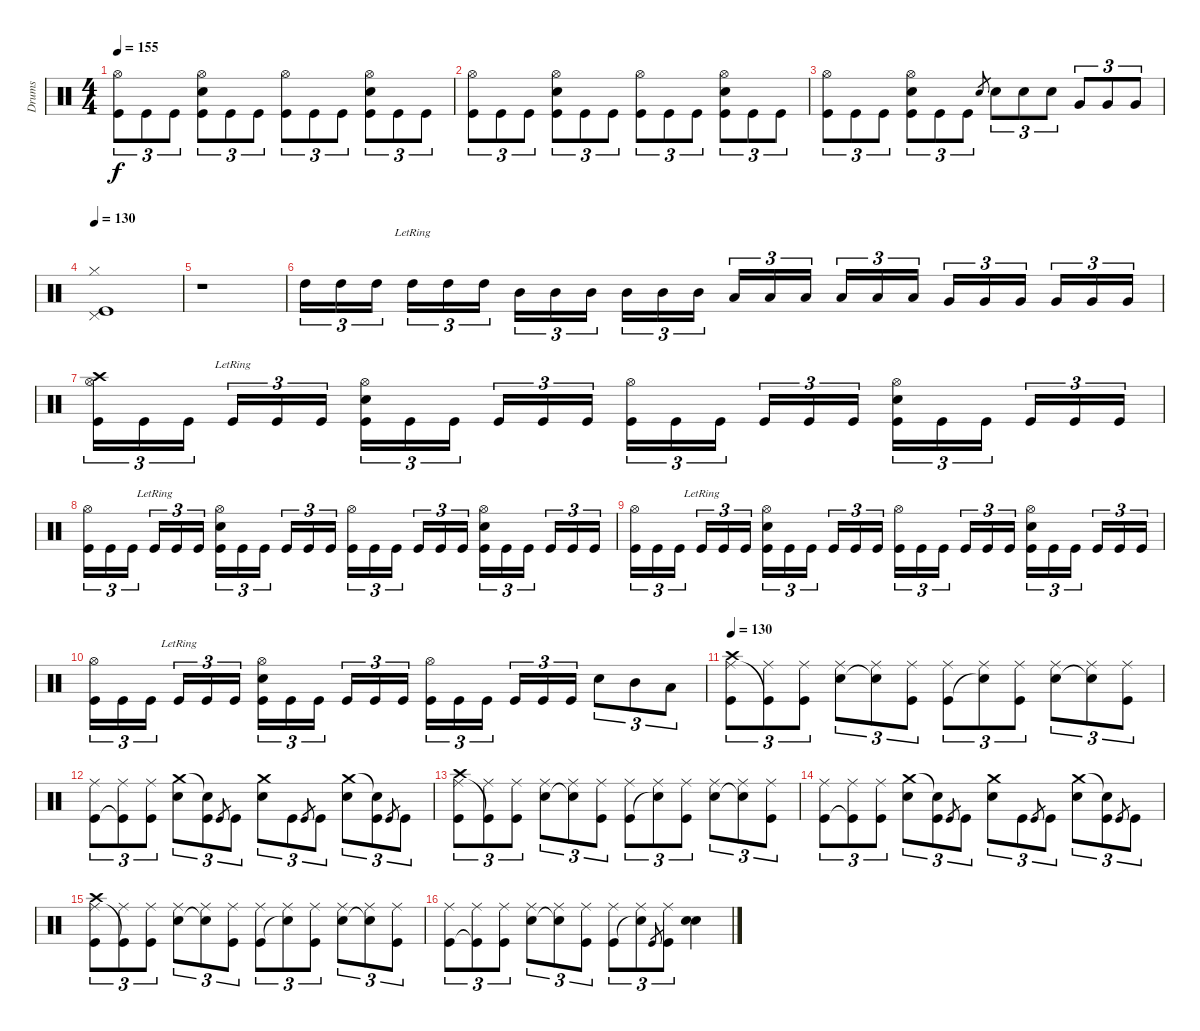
\track ("Drums" "Drums") {instrument percussion}
\staff {score}
\articulation defaults
\ts (4 4)
\tempo 155
\clef neutral
\ks c
("Hi-Hat (open)" "Kick (hit)").8{tu (3 2) dy f} "Kick (hit)".8{tu (3 2)} "Kick (hit)".8{tu (3 2)} ("Hi-Hat (open)" "Electric Snare (hit)" "Kick (hit)").8{tu (3 2)} "Kick (hit)".8{tu (3 2)} "Kick (hit)".8{tu (3 2)} ("Hi-Hat (open)" "Kick (hit)").8{tu (3 2)} "Kick (hit)".8{tu (3 2)} "Kick (hit)".8{tu (3 2)} ("Hi-Hat (open)" "Electric Snare (hit)" "Kick (hit)").8{tu (3 2)} "Kick (hit)".8{tu (3 2)} "Kick (hit)".8{tu (3 2)} |
("Hi-Hat (open)" "Kick (hit)").8{tu (3 2)} "Kick (hit)".8{tu (3 2)} "Kick (hit)".8{tu (3 2)} ("Hi-Hat (open)" "Electric Snare (hit)" "Kick (hit)").8{tu (3 2)} "Kick (hit)".8{tu (3 2)} "Kick (hit)".8{tu (3 2)} ("Hi-Hat (open)" "Kick (hit)").8{tu (3 2)} "Kick (hit)".8{tu (3 2)} "Kick (hit)".8{tu (3 2)} ("Hi-Hat (open)" "Electric Snare (hit)" "Kick (hit)").8{tu (3 2)} "Kick (hit)".8{tu (3 2)} "Kick (hit)".8{tu (3 2)} |
("Hi-Hat (open)" "Kick (hit)").8{tu (3 2)} "Kick (hit)".8{tu (3 2)} "Kick (hit)".8{tu (3 2)} ("Hi-Hat (open)" "Electric Snare (hit)" "Kick (hit)").8{tu (3 2)} "Kick (hit)".8{tu (3 2)} "Kick (hit)".8{tu (3 2)} "Electric Snare (hit)".8{gr} "Electric Snare (hit)".8{tu (3 2)} "Electric Snare (hit)".8{tu (3 2)} "Electric Snare (hit)".8{tu (3 2)} "Very Low Tom (hit)".8{tu (3 2)} "Very Low Tom (hit)".8{tu (3 2)} "Very Low Tom (hit)".8{tu (3 2)} |
\tempo 130
("Hi-Hat (closed)" "Pedal Hi-Hat (hit)" "Kick (hit)").1 |
r.1 |
"High Tom (hit)".16{tu (3 2)} "High Tom (hit)".16{tu (3 2)} "High Tom (hit)".16{tu (3 2)} "High Tom (hit)"{lr}.16{tu (3 2)} "High Tom (hit)".16{tu (3 2)} "High Tom (hit)".16{tu (3 2)} "Mid Tom (hit)".16{tu (3 2)} "Mid Tom (hit)".16{tu (3 2)} "Mid Tom (hit)".16{tu (3 2)} "Mid Tom (hit)".16{tu (3 2)} "Mid Tom (hit)".16{tu (3 2)} "Mid Tom (hit)".16{tu (3 2)} "Low Tom (hit)".16{tu (3 2)} "Low Tom (hit)".16{tu (3 2)} "Low Tom (hit)".16{tu (3 2)} "Low Tom (hit)".16{tu (3 2)} "Low Tom (hit)".16{tu (3 2)} "Low Tom (hit)".16{tu (3 2)} "Very Low Tom (hit)".16{tu (3 2)} "Very Low Tom (hit)".16{tu (3 2)} "Very Low Tom (hit)".16{tu (3 2)} "Very Low Tom (hit)".16{tu (3 2)} "Very Low Tom (hit)".16{tu (3 2)} "Very Low Tom (hit)".16{tu (3 2)} |
("Crash high (hit)" "Hi-Hat (open)" "Kick (hit)").16{tu (3 2)} "Kick (hit)".16{tu (3 2)} "Kick (hit)".16{tu (3 2)} "Kick (hit)"{lr}.16{tu (3 2)} "Kick (hit)".16{tu (3 2)} "Kick (hit)".16{tu (3 2)} ("Hi-Hat (open)" "Electric Snare (hit)" "Kick (hit)").16{tu (3 2)} "Kick (hit)".16{tu (3 2)} "Kick (hit)".16{tu (3 2)} "Kick (hit)".16{tu (3 2)} "Kick (hit)".16{tu (3 2)} "Kick (hit)".16{tu (3 2)} ("Hi-Hat (open)" "Kick (hit)").16{tu (3 2)} "Kick (hit)".16{tu (3 2)} "Kick (hit)".16{tu (3 2)} "Kick (hit)".16{tu (3 2)} "Kick (hit)".16{tu (3 2)} "Kick (hit)".16{tu (3 2)} ("Hi-Hat (open)" "Electric Snare (hit)" "Kick (hit)").16{tu (3 2)} "Kick (hit)".16{tu (3 2)} "Kick (hit)".16{tu (3 2)} "Kick (hit)".16{tu (3 2)} "Kick (hit)".16{tu (3 2)} "Kick (hit)".16{tu (3 2)} |
("Hi-Hat (open)" "Kick (hit)").16{tu (3 2)} "Kick (hit)".16{tu (3 2)} "Kick (hit)".16{tu (3 2)} "Kick (hit)"{lr}.16{tu (3 2)} "Kick (hit)".16{tu (3 2)} "Kick (hit)".16{tu (3 2)} ("Hi-Hat (open)" "Electric Snare (hit)" "Kick (hit)").16{tu (3 2)} "Kick (hit)".16{tu (3 2)} "Kick (hit)".16{tu (3 2)} "Kick (hit)".16{tu (3 2)} "Kick (hit)".16{tu (3 2)} "Kick (hit)".16{tu (3 2)} ("Hi-Hat (open)" "Kick (hit)").16{tu (3 2)} "Kick (hit)".16{tu (3 2)} "Kick (hit)".16{tu (3 2)} "Kick (hit)".16{tu (3 2)} "Kick (hit)".16{tu (3 2)} "Kick (hit)".16{tu (3 2)} ("Hi-Hat (open)" "Electric Snare (hit)" "Kick (hit)").16{tu (3 2)} "Kick (hit)".16{tu (3 2)} "Kick (hit)".16{tu (3 2)} "Kick (hit)".16{tu (3 2)} "Kick (hit)".16{tu (3 2)} "Kick (hit)".16{tu (3 2)} |
("Hi-Hat (open)" "Kick (hit)").16{tu (3 2)} "Kick (hit)".16{tu (3 2)} "Kick (hit)".16{tu (3 2)} "Kick (hit)"{lr}.16{tu (3 2)} "Kick (hit)".16{tu (3 2)} "Kick (hit)".16{tu (3 2)} ("Hi-Hat (open)" "Electric Snare (hit)" "Kick (hit)").16{tu (3 2)} "Kick (hit)".16{tu (3 2)} "Kick (hit)".16{tu (3 2)} "Kick (hit)".16{tu (3 2)} "Kick (hit)".16{tu (3 2)} "Kick (hit)".16{tu (3 2)} ("Hi-Hat (open)" "Kick (hit)").16{tu (3 2)} "Kick (hit)".16{tu (3 2)} "Kick (hit)".16{tu (3 2)} "Kick (hit)".16{tu (3 2)} "Kick (hit)".16{tu (3 2)} "Kick (hit)".16{tu (3 2)} ("Hi-Hat (open)" "Electric Snare (hit)" "Kick (hit)").16{tu (3 2)} "Kick (hit)".16{tu (3 2)} "Kick (hit)".16{tu (3 2)} "Kick (hit)".16{tu (3 2)} "Kick (hit)".16{tu (3 2)} "Kick (hit)".16{tu (3 2)} |
("Hi-Hat (open)" "Kick (hit)").16{tu (3 2)} "Kick (hit)".16{tu (3 2)} "Kick (hit)".16{tu (3 2)} "Kick (hit)"{lr}.16{tu (3 2)} "Kick (hit)".16{tu (3 2)} "Kick (hit)".16{tu (3 2)} ("Hi-Hat (open)" "Electric Snare (hit)" "Kick (hit)").16{tu (3 2)} "Kick (hit)".16{tu (3 2)} "Kick (hit)".16{tu (3 2)} "Kick (hit)".16{tu (3 2)} "Kick (hit)".16{tu (3 2)} "Kick (hit)".16{tu (3 2)} ("Hi-Hat (open)" "Kick (hit)").16{tu (3 2)} "Kick (hit)".16{tu (3 2)} "Kick (hit)".16{tu (3 2)} "Kick (hit)".16{tu (3 2)} "Kick (hit)".16{tu (3 2)} "Kick (hit)".16{tu (3 2)} "Electric Snare (hit)".8{tu (3 2)} "Mid Tom (hit)".8{tu (3 2)} "Low Tom (hit)".8{tu (3 2)} |
\tempo 130
("Crash high (hit)" "Ride (middle)" "Kick (hit)").8{tu (3 2)} ("Ride (middle)" "Kick (hit)"{t}).8{tu (3 2)} ("Ride (middle)" "Kick (hit)").8{tu (3 2)} ("Ride (middle)" "Electric Snare (hit)").8{tu (3 2)} ("Ride (middle)" "Snare (hit)"{t}).8{tu (3 2)} ("Ride (middle)" "Kick (hit)").8{tu (3 2)} ("Ride (middle)" "Kick (hit)").8{tu (3 2)} ("Ride (middle)" "Snare (hit)"{t}).8{tu (3 2)} ("Ride (middle)" "Kick (hit)").8{tu (3 2)} ("Ride (middle)" "Electric Snare (hit)").8{tu (3 2)} ("Ride (middle)" "Snare (hit)"{t}).8{tu (3 2)} ("Ride (middle)" "Kick (hit)").8{tu (3 2)} |
("Ride (middle)" "Kick (hit)").8{tu (3 2)} ("Ride (middle)" "Kick (hit)"{t}).8{tu (3 2)} ("Ride (middle)" "Kick (hit)").8{tu (3 2)} ("Crash medium (hit)" "Electric Snare (hit)").8{tu (3 2)} ("Snare (hit)"{t} "Kick (hit)").8{tu (3 2)} "Kick (hit)".8{gr} "Kick (hit)".8{tu (3 2)} ("Crash medium (hit)" "Electric Snare (hit)").8{tu (3 2)} "Kick (hit)".8{tu (3 2)} "Kick (hit)".8{gr} "Kick (hit)".8{tu (3 2)} ("Crash medium (hit)" "Electric Snare (hit)").8{tu (3 2)} ("Snare (hit)"{t} "Kick (hit)").8{tu (3 2)} "Kick (hit)".8{gr} "Kick (hit)".8{tu (3 2)} |
("Crash high (hit)" "Ride (middle)" "Kick (hit)").8{tu (3 2)} ("Ride (middle)" "Kick (hit)"{t}).8{tu (3 2)} ("Ride (middle)" "Kick (hit)").8{tu (3 2)} ("Ride (middle)" "Electric Snare (hit)").8{tu (3 2)} ("Ride (middle)" "Snare (hit)"{t}).8{tu (3 2)} ("Ride (middle)" "Kick (hit)").8{tu (3 2)} ("Ride (middle)" "Kick (hit)").8{tu (3 2)} ("Ride (middle)" "Snare (hit)"{t}).8{tu (3 2)} ("Ride (middle)" "Kick (hit)").8{tu (3 2)} ("Ride (middle)" "Electric Snare (hit)").8{tu (3 2)} ("Ride (middle)" "Snare (hit)"{t}).8{tu (3 2)} ("Ride (middle)" "Kick (hit)").8{tu (3 2)} |
("Ride (middle)" "Kick (hit)").8{tu (3 2)} ("Ride (middle)" "Kick (hit)"{t}).8{tu (3 2)} ("Ride (middle)" "Kick (hit)").8{tu (3 2)} ("Crash medium (hit)" "Electric Snare (hit)").8{tu (3 2)} ("Snare (hit)"{t} "Kick (hit)").8{tu (3 2)} "Kick (hit)".8{gr} "Kick (hit)".8{tu (3 2)} ("Crash medium (hit)" "Electric Snare (hit)").8{tu (3 2)} "Kick (hit)".8{tu (3 2)} "Kick (hit)".8{gr} "Kick (hit)".8{tu (3 2)} ("Crash medium (hit)" "Electric Snare (hit)").8{tu (3 2)} ("Snare (hit)"{t} "Kick (hit)").8{tu (3 2)} "Kick (hit)".8{gr} "Kick (hit)".8{tu (3 2)} |
("Crash high (hit)" "Ride (middle)" "Kick (hit)").8{tu (3 2)} ("Ride (middle)" "Kick (hit)"{t}).8{tu (3 2)} ("Ride (middle)" "Kick (hit)").8{tu (3 2)} ("Ride (middle)" "Electric Snare (hit)").8{tu (3 2)} ("Ride (middle)" "Snare (hit)"{t}).8{tu (3 2)} ("Ride (middle)" "Kick (hit)").8{tu (3 2)} ("Ride (middle)" "Kick (hit)").8{tu (3 2)} ("Ride (middle)" "Snare (hit)"{t}).8{tu (3 2)} ("Ride (middle)" "Kick (hit)").8{tu (3 2)} ("Ride (middle)" "Electric Snare (hit)").8{tu (3 2)} ("Ride (middle)" "Snare (hit)"{t}).8{tu (3 2)} ("Ride (middle)" "Kick (hit)").8{tu (3 2)} |
("Ride (middle)" "Kick (hit)").8{tu (3 2)} ("Ride (middle)" "Kick (hit)"{t}).8{tu (3 2)} ("Ride (middle)" "Kick (hit)").8{tu (3 2)} ("Ride (middle)" "Electric Snare (hit)").8{tu (3 2)} ("Ride (middle)" "Snare (hit)"{t}).8{tu (3 2)} ("Ride (middle)" "Kick (hit)").8{tu (3 2)} ("Ride (middle)" "Kick (hit)").8{tu (3 2)} ("Ride (middle)" "Snare (hit)"{t}).8{tu (3 2)} "Kick (hit)".8{gr} ("Ride (middle)" "Kick (hit)").8{tu (3 2)} ("Snare (hit) 2" "Electric Snare (hit)").4
